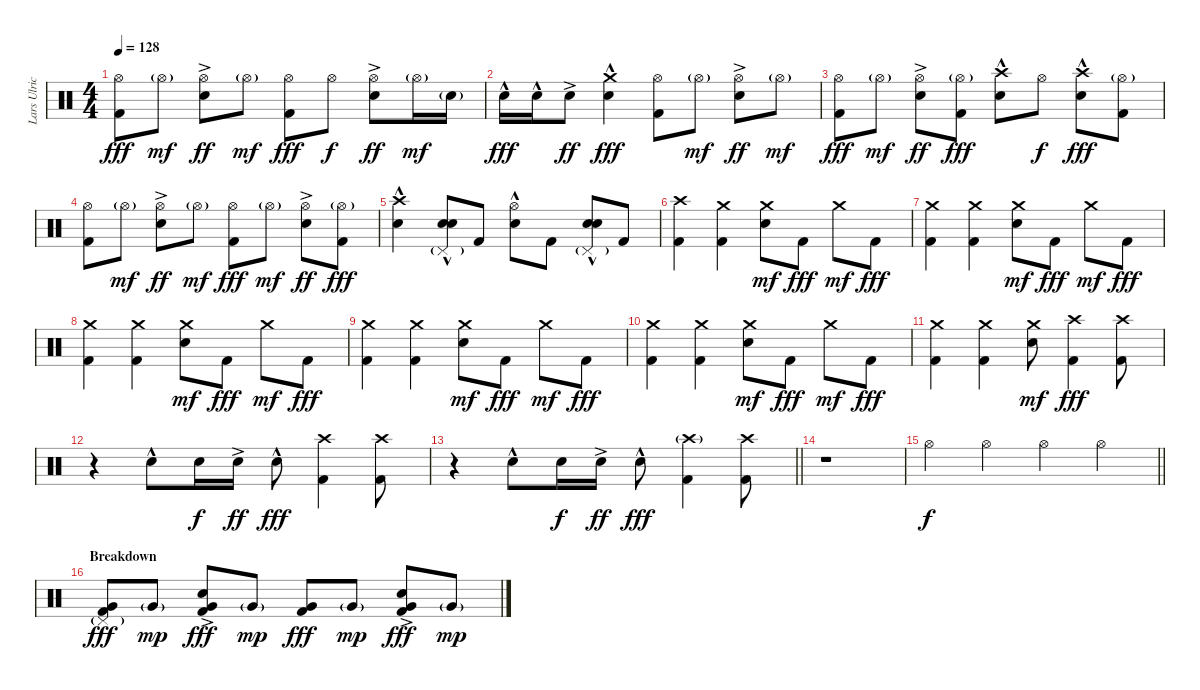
\track ("Lars Ulrich (Drums)" "Lars Ulric") {instrument percussion}
\staff {score}
\articulation defaults
\ts (4 4)
\tempo 128
\clef neutral
\ks c
("Hi-Hat (open)" "Kick (hit) 2").8{dy fff} "Hi-Hat (open)"{g}.8{dy mf} ("Hi-Hat (open)"{ac} "Electric Snare (hit)"{ac}).8{dy ff} "Hi-Hat (open)"{g}.8{dy mf} ("Hi-Hat (open)" "Kick (hit) 2").8{dy fff} "Hi-Hat (open)".8{dy f} ("Hi-Hat (open)"{ac} "Electric Snare (hit)"{ac}).8{dy ff} "Hi-Hat (open)"{g}.16{dy mf} "Electric Snare (hit)"{g}.16 |
"Electric Snare (hit)"{hac}.16{dy fff} "Electric Snare (hit)"{hac}.16 "Electric Snare (hit)"{ac}.8{dy ff} ("Crash medium (hit)" "Electric Snare (hit)"{hac}).4{dy fff} ("Hi-Hat (open)" "Kick (hit) 2").8 "Hi-Hat (open)"{g}.8{dy mf} ("Hi-Hat (open)"{ac} "Electric Snare (hit)"{ac}).8{dy ff} "Hi-Hat (open)"{g}.8{dy mf} |
("Hi-Hat (open)" "Kick (hit) 2").8{dy fff} "Hi-Hat (open)"{g}.8{dy mf} ("Hi-Hat (open)"{ac} "Electric Snare (hit)"{ac}).8{dy ff} ("Hi-Hat (open)"{g} "Kick (hit) 2").8{dy fff} ("Crash high (hit)" "Electric Snare (hit)"{hac}).8 "Hi-Hat (open)".8{dy f} ("Crash high (hit)" "Electric Snare (hit)"{hac}).8{dy fff} ("Hi-Hat (open)"{g} "Kick (hit) 2").8 |
("Hi-Hat (open)" "Kick (hit) 2").8 "Hi-Hat (open)"{g}.8{dy mf} ("Hi-Hat (open)"{ac} "Electric Snare (hit)"{ac}).8{dy ff} "Hi-Hat (open)"{g}.8{dy mf} ("Hi-Hat (open)" "Kick (hit) 2").8{dy fff} "Hi-Hat (open)"{g}.8{dy mf} ("Hi-Hat (open)"{ac} "Electric Snare (hit)"{ac}).8{dy ff} ("Hi-Hat (open)"{g} "Kick (hit) 2").8{dy fff} |
("Crash high (hit)" "Electric Snare (hit)"{hac}).4 ("Pedal Hi-Hat (hit)"{g} "Electric Snare (hit)"{hac} "Electric Snare (hit)"{hac}).8{bd 60} "Kick (hit) 2".8 ("Hi-Hat (open)"{hac} "Electric Snare (hit)"{hac}).8 "Kick (hit) 2".8 ("Pedal Hi-Hat (hit)"{g} "Electric Snare (hit)"{hac} "Electric Snare (hit)"{hac}).8{bd 60} "Kick (hit) 2".8 |
("Crash high (hit)" "Kick (hit) 2").4 ("Crash medium (hit)" "Kick (hit) 2").4 ("Crash medium (hit)" "Electric Snare (hit)").8{dy mf} "Kick (hit) 2".8{dy fff} "Crash medium (hit)".8{dy mf} "Kick (hit) 2".8{dy fff} |
("Crash medium (hit)" "Kick (hit) 2").4 ("Crash medium (hit)" "Kick (hit) 2").4 ("Crash medium (hit)" "Electric Snare (hit)").8{dy mf} "Kick (hit) 2".8{dy fff} "Crash medium (hit)".8{dy mf} "Kick (hit) 2".8{dy fff} |
("Crash medium (hit)" "Kick (hit) 2").4 ("Crash medium (hit)" "Kick (hit) 2").4 ("Crash medium (hit)" "Electric Snare (hit)").8{dy mf} "Kick (hit) 2".8{dy fff} "Crash medium (hit)".8{dy mf} "Kick (hit) 2".8{dy fff} |
("Crash medium (hit)" "Kick (hit) 2").4 ("Crash medium (hit)" "Kick (hit) 2").4 ("Crash medium (hit)" "Electric Snare (hit)").8{dy mf} "Kick (hit) 2".8{dy fff} "Crash medium (hit)".8{dy mf} "Kick (hit) 2".8{dy fff} |
("Crash medium (hit)" "Kick (hit) 2").4 ("Crash medium (hit)" "Kick (hit) 2").4 ("Crash medium (hit)" "Electric Snare (hit)").8{dy mf} "Kick (hit) 2".8{dy fff} "Crash medium (hit)".8{dy mf} "Kick (hit) 2".8{dy fff} |
("Crash medium (hit)" "Kick (hit) 2").4 ("Crash medium (hit)" "Kick (hit) 2").4 ("Crash medium (hit)" "Electric Snare (hit)").8{dy mf} ("Crash high (hit)" "Kick (hit) 2").4{dy fff} ("Crash high (hit)" "Kick (hit) 2").8 |
r.4 "Electric Snare (hit)"{hac}.8 "Electric Snare (hit)".16{dy f} "Electric Snare (hit)"{ac}.16{dy ff} "Electric Snare (hit)"{hac}.8{dy fff} ("Crash high (hit)" "Kick (hit) 2").4 ("Crash high (hit)" "Kick (hit) 2").8 |
\barLineRight lightlight
r.4 "Electric Snare (hit)"{hac}.8 "Electric Snare (hit)".16{dy f} "Electric Snare (hit)"{ac}.16{dy ff} "Electric Snare (hit)"{hac}.8{dy fff} ("Crash high (hit)"{g} "Kick (hit) 2").4 ("Crash high (hit)" "Kick (hit) 2").8 |
r.1 |
\barLineRight lightlight "Hi-Hat (open)".4{dy f} "Hi-Hat (open)".4 "Hi-Hat (open)".4 "Hi-Hat (open)".4
|
\section ("" "Breakdown")
("Pedal Hi-Hat (hit)"{g} "Very Low Tom (hit)" "Kick (hit) 2").8{dy fff} "Very Low Tom (hit)"{g}.8{dy mp} ("Electric Snare (hit)"{ac} "Very Low Tom (hit)" "Kick (hit) 2").8{dy fff} "Very Low Tom (hit)"{g}.8{dy mp} ("Very Low Tom (hit)" "Kick (hit) 2").8{dy fff} "Very Low Tom (hit)"{g}.8{dy mp} ("Electric Snare (hit)"{ac} "Very Low Tom (hit)" "Kick (hit) 2").8{dy fff} "Very Low Tom (hit)"{g}.8{dy mp}
